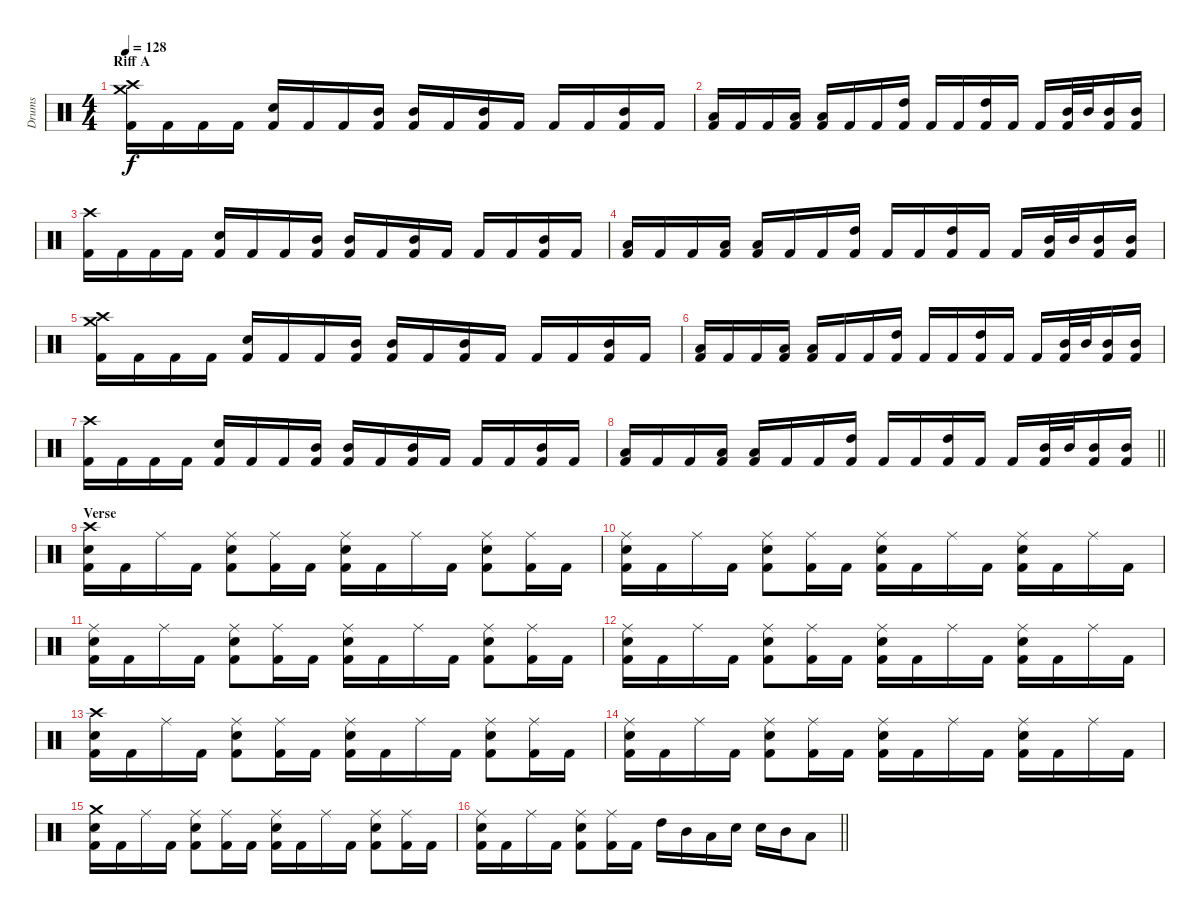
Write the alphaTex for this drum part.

\track ("Drums" "Drums") {instrument percussion}
\staff {score}
\articulation defaults
\ts (4 4)
\section ("" "Riff A")
\tempo 128
\clef neutral
\ks c
("Crash high (hit)" "Crash medium (hit)" "Kick (hit) 2").16{dy f} "Kick (hit) 2".16 "Kick (hit) 2".16 "Kick (hit) 2".16 ("Electric Snare (hit)" "Kick (hit) 2").16 "Kick (hit) 2".16 "Kick (hit) 2".16 ("Mid Tom (hit)" "Kick (hit) 2").16 ("Mid Tom (hit)" "Kick (hit) 2").16 "Kick (hit) 2".16 ("Mid Tom (hit)" "Kick (hit) 2").16 "Kick (hit) 2".16 "Kick (hit) 2".16 "Kick (hit) 2".16 ("Mid Tom (hit)" "Kick (hit) 2").16 "Kick (hit) 2".16 |
("Low Tom (hit)" "Kick (hit) 2").16 "Kick (hit) 2".16 "Kick (hit) 2".16 ("Low Tom (hit)" "Kick (hit) 2").16 ("Low Tom (hit)" "Kick (hit) 2").16 "Kick (hit) 2".16 "Kick (hit) 2".16 ("High Tom (hit)" "Kick (hit) 2").16 "Kick (hit) 2".16 "Kick (hit) 2".16 ("High Tom (hit)" "Kick (hit) 2").16 "Kick (hit) 2".16 "Kick (hit) 2".16 ("Mid Tom (hit)" "Kick (hit) 2").32 "Mid Tom (hit)".32 ("Mid Tom (hit)" "Kick (hit) 2").16 ("Mid Tom (hit)" "Kick (hit) 2").16 |
("Crash high (hit)" "Kick (hit) 2").16 "Kick (hit) 2".16 "Kick (hit) 2".16 "Kick (hit) 2".16 ("Electric Snare (hit)" "Kick (hit) 2").16 "Kick (hit) 2".16 "Kick (hit) 2".16 ("Mid Tom (hit)" "Kick (hit) 2").16 ("Mid Tom (hit)" "Kick (hit) 2").16 "Kick (hit) 2".16 ("Mid Tom (hit)" "Kick (hit) 2").16 "Kick (hit) 2".16 "Kick (hit) 2".16 "Kick (hit) 2".16 ("Mid Tom (hit)" "Kick (hit) 2").16 "Kick (hit) 2".16 |
("Low Tom (hit)" "Kick (hit) 2").16 "Kick (hit) 2".16 "Kick (hit) 2".16 ("Low Tom (hit)" "Kick (hit) 2").16 ("Low Tom (hit)" "Kick (hit) 2").16 "Kick (hit) 2".16 "Kick (hit) 2".16 ("High Tom (hit)" "Kick (hit) 2").16 "Kick (hit) 2".16 "Kick (hit) 2".16 ("High Tom (hit)" "Kick (hit) 2").16 "Kick (hit) 2".16 "Kick (hit) 2".16 ("Mid Tom (hit)" "Kick (hit) 2").32 "Mid Tom (hit)".32 ("Mid Tom (hit)" "Kick (hit) 2").16 ("Mid Tom (hit)" "Kick (hit) 2").16 |
("Crash high (hit)" "Crash medium (hit)" "Kick (hit) 2").16 "Kick (hit) 2".16 "Kick (hit) 2".16 "Kick (hit) 2".16 ("Electric Snare (hit)" "Kick (hit) 2").16 "Kick (hit) 2".16 "Kick (hit) 2".16 ("Mid Tom (hit)" "Kick (hit) 2").16 ("Mid Tom (hit)" "Kick (hit) 2").16 "Kick (hit) 2".16 ("Mid Tom (hit)" "Kick (hit) 2").16 "Kick (hit) 2".16 "Kick (hit) 2".16 "Kick (hit) 2".16 ("Mid Tom (hit)" "Kick (hit) 2").16 "Kick (hit) 2".16 |
("Low Tom (hit)" "Kick (hit) 2").16 "Kick (hit) 2".16 "Kick (hit) 2".16 ("Low Tom (hit)" "Kick (hit) 2").16 ("Low Tom (hit)" "Kick (hit) 2").16 "Kick (hit) 2".16 "Kick (hit) 2".16 ("High Tom (hit)" "Kick (hit) 2").16 "Kick (hit) 2".16 "Kick (hit) 2".16 ("High Tom (hit)" "Kick (hit) 2").16 "Kick (hit) 2".16 "Kick (hit) 2".16 ("Mid Tom (hit)" "Kick (hit) 2").32 "Mid Tom (hit)".32 ("Mid Tom (hit)" "Kick (hit) 2").16 ("Mid Tom (hit)" "Kick (hit) 2").16 |
("Crash high (hit)" "Kick (hit) 2").16 "Kick (hit) 2".16 "Kick (hit) 2".16 "Kick (hit) 2".16 ("Electric Snare (hit)" "Kick (hit) 2").16 "Kick (hit) 2".16 "Kick (hit) 2".16 ("Mid Tom (hit)" "Kick (hit) 2").16 ("Mid Tom (hit)" "Kick (hit) 2").16 "Kick (hit) 2".16 ("Mid Tom (hit)" "Kick (hit) 2").16 "Kick (hit) 2".16 "Kick (hit) 2".16 "Kick (hit) 2".16 ("Mid Tom (hit)" "Kick (hit) 2").16 "Kick (hit) 2".16 |
\barLineRight lightlight
("Low Tom (hit)" "Kick (hit) 2").16 "Kick (hit) 2".16 "Kick (hit) 2".16 ("Low Tom (hit)" "Kick (hit) 2").16 ("Low Tom (hit)" "Kick (hit) 2").16 "Kick (hit) 2".16 "Kick (hit) 2".16 ("High Tom (hit)" "Kick (hit) 2").16 "Kick (hit) 2".16 "Kick (hit) 2".16 ("High Tom (hit)" "Kick (hit) 2").16 "Kick (hit) 2".16 "Kick (hit) 2".16 ("Mid Tom (hit)" "Kick (hit) 2").32 "Mid Tom (hit)".32 ("Mid Tom (hit)" "Kick (hit) 2").16 ("Mid Tom (hit)" "Kick (hit) 2").16 |
\section ("" "Verse")
("Crash high (hit)" "Electric Snare (hit)" "Kick (hit) 2").16 "Kick (hit) 2".16 "Ride (middle)".16 "Kick (hit) 2".16 ("Ride (middle)" "Electric Snare (hit)" "Kick (hit) 2").8 ("Ride (middle)" "Kick (hit) 2").16 "Kick (hit) 2".16 ("Ride (middle)" "Electric Snare (hit)" "Kick (hit) 2").16 "Kick (hit) 2".16 "Ride (middle)".16 "Kick (hit) 2".16 ("Ride (middle)" "Electric Snare (hit)" "Kick (hit) 2").8 ("Ride (middle)" "Kick (hit) 2").16 "Kick (hit) 2".16 |
("Ride (middle)" "Electric Snare (hit)" "Kick (hit) 2").16 "Kick (hit) 2".16 "Ride (middle)".16 "Kick (hit) 2".16 ("Ride (middle)" "Electric Snare (hit)" "Kick (hit) 2").8 ("Ride (middle)" "Kick (hit) 2").16 "Kick (hit) 2".16 ("Ride (middle)" "Electric Snare (hit)" "Kick (hit) 2").16 "Kick (hit) 2".16 "Ride (middle)".16 "Kick (hit) 2".16 ("Ride (middle)" "Electric Snare (hit)" "Kick (hit) 2").16 "Kick (hit) 2".16 "Ride (middle)".16 "Kick (hit) 2".16 |
("Ride (middle)" "Electric Snare (hit)" "Kick (hit) 2").16 "Kick (hit) 2".16 "Ride (middle)".16 "Kick (hit) 2".16 ("Ride (middle)" "Electric Snare (hit)" "Kick (hit) 2").8 ("Ride (middle)" "Kick (hit) 2").16 "Kick (hit) 2".16 ("Ride (middle)" "Electric Snare (hit)" "Kick (hit) 2").16 "Kick (hit) 2".16 "Ride (middle)".16 "Kick (hit) 2".16 ("Ride (middle)" "Electric Snare (hit)" "Kick (hit) 2").8 ("Ride (middle)" "Kick (hit) 2").16 "Kick (hit) 2".16 |
("Ride (middle)" "Electric Snare (hit)" "Kick (hit) 2").16 "Kick (hit) 2".16 "Ride (middle)".16 "Kick (hit) 2".16 ("Ride (middle)" "Electric Snare (hit)" "Kick (hit) 2").8 ("Ride (middle)" "Kick (hit) 2").16 "Kick (hit) 2".16 ("Ride (middle)" "Electric Snare (hit)" "Kick (hit) 2").16 "Kick (hit) 2".16 "Ride (middle)".16 "Kick (hit) 2".16 ("Ride (middle)" "Electric Snare (hit)" "Kick (hit) 2").16 "Kick (hit) 2".16 "Ride (middle)".16 "Kick (hit) 2".16 |
("Crash high (hit)" "Electric Snare (hit)" "Kick (hit) 2").16 "Kick (hit) 2".16 "Ride (middle)".16 "Kick (hit) 2".16 ("Ride (middle)" "Electric Snare (hit)" "Kick (hit) 2").8 ("Ride (middle)" "Kick (hit) 2").16 "Kick (hit) 2".16 ("Ride (middle)" "Electric Snare (hit)" "Kick (hit) 2").16 "Kick (hit) 2".16 "Ride (middle)".16 "Kick (hit) 2".16 ("Ride (middle)" "Electric Snare (hit)" "Kick (hit) 2").8 ("Ride (middle)" "Kick (hit) 2").16 "Kick (hit) 2".16 |
("Ride (middle)" "Electric Snare (hit)" "Kick (hit) 2").16 "Kick (hit) 2".16 "Ride (middle)".16 "Kick (hit) 2".16 ("Ride (middle)" "Electric Snare (hit)" "Kick (hit) 2").8 ("Ride (middle)" "Kick (hit) 2").16 "Kick (hit) 2".16 ("Ride (middle)" "Electric Snare (hit)" "Kick (hit) 2").16 "Kick (hit) 2".16 "Ride (middle)".16 "Kick (hit) 2".16 ("Ride (middle)" "Electric Snare (hit)" "Kick (hit) 2").16 "Kick (hit) 2".16 "Ride (middle)".16 "Kick (hit) 2".16 |
("Crash medium (hit)" "Electric Snare (hit)" "Kick (hit) 2").16 "Kick (hit) 2".16 "Ride (middle)".16 "Kick (hit) 2".16 ("Ride (middle)" "Electric Snare (hit)" "Kick (hit) 2").8 ("Ride (middle)" "Kick (hit) 2").16 "Kick (hit) 2".16 ("Ride (middle)" "Electric Snare (hit)" "Kick (hit) 2").16 "Kick (hit) 2".16 "Ride (middle)".16 "Kick (hit) 2".16 ("Ride (middle)" "Electric Snare (hit)" "Kick (hit) 2").8 ("Ride (middle)" "Kick (hit) 2").16 "Kick (hit) 2".16 |
\barLineRight lightlight
("Ride (middle)" "Electric Snare (hit)" "Kick (hit) 2").16 "Kick (hit) 2".16 "Ride (middle)".16 "Kick (hit) 2".16 ("Ride (middle)" "Electric Snare (hit)" "Kick (hit) 2").8 ("Ride (middle)" "Kick (hit) 2").16 "Kick (hit) 2".16 "High Tom (hit)".16 "Mid Tom (hit)".16 "Low Tom (hit)".16 "Electric Snare (hit)".16 "Electric Snare (hit)".16 "Mid Tom (hit)".16 "Low Tom (hit)".8
